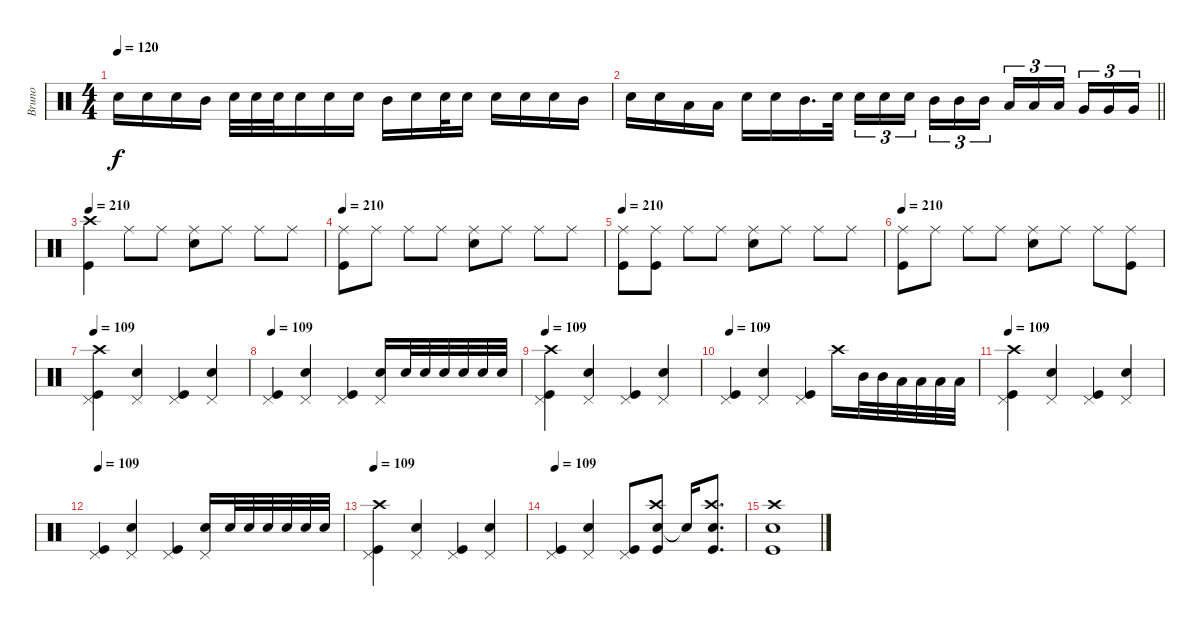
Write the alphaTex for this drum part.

\track ("Bruno" "Bruno") {instrument percussion}
\staff {score}
\articulation defaults
\ts (4 4)
\tempo 120
\clef neutral
\ks c "Snare (hit) 2".16{dy f} "Snare (hit) 2".16 "Snare (hit) 2".16 "Mid Tom (hit)".16 "Snare (hit) 2".32 "Snare (hit) 2".32 "Snare (hit) 2".32 "Snare (hit) 2".16 "Snare (hit) 2".16 "Snare (hit) 2".16 "Mid Tom (hit)".16 "Snare (hit) 2".16 "Snare (hit) 2".32 "Snare (hit) 2".16 "Snare (hit) 2".16 "Snare (hit) 2".16 "Snare (hit) 2".16 "Mid Tom (hit)".16
|
\barLineRight lightlight "Snare (hit) 2".16 "Snare (hit) 2".16 "Low Tom (hit)".16 "Low Tom (hit)".16 "Snare (hit) 2".16 "Snare (hit) 2".16 "Mid Tom (hit)".16{d} "Snare (hit) 2".32 "Snare (hit) 2".16{tu (3 2)} "Snare (hit) 2".16{tu (3 2)} "Snare (hit) 2".16{tu (3 2) beam splitsecondary} "Mid Tom (hit)".16{tu (3 2)} "Mid Tom (hit)".16{tu (3 2)} "Mid Tom (hit)".16{tu (3 2)} "Low Tom (hit)".16{tu (3 2)} "Low Tom (hit)".16{tu (3 2)} "Low Tom (hit)".16{tu (3 2) beam splitsecondary} "Very Low Tom (hit)".16{tu (3 2)} "Very Low Tom (hit)".16{tu (3 2)} "Very Low Tom (hit)".16{tu (3 2)}
|
\tempo 210
("Crash high (hit)" "Kick (hit)").4 "Ride (middle)".8 "Ride (middle)".8 ("Ride (middle)" "Snare (hit) 2").8 "Ride (middle)".8 "Ride (middle)".8 "Ride (middle)".8 |
\tempo 210
("Ride (middle)" "Kick (hit)").8 "Ride (middle)".8 "Ride (middle)".8 "Ride (middle)".8 ("Ride (middle)" "Snare (hit) 2").8 "Ride (middle)".8 "Ride (middle)".8 "Ride (middle)".8 |
\tempo 210
("Ride (middle)" "Kick (hit)").8 ("Ride (middle)" "Kick (hit)").8 "Ride (middle)".8 "Ride (middle)".8 ("Ride (middle)" "Snare (hit) 2").8 "Ride (middle)".8 "Ride (middle)".8 "Ride (middle)".8 |
\tempo 210
("Ride (middle)" "Kick (hit)").8 "Ride (middle)".8 "Ride (middle)".8 "Ride (middle)".8 ("Ride (middle)" "Snare (hit) 2").8 "Ride (middle)".8 "Ride (middle)".8 ("Ride (middle)" "Kick (hit)").8 |
\tempo 109
("Crash high (hit)" "Pedal Hi-Hat (hit)" "Kick (hit)").4 ("Pedal Hi-Hat (hit)" "Snare (hit) 2").4 ("Pedal Hi-Hat (hit)" "Kick (hit)").4 ("Pedal Hi-Hat (hit)" "Snare (hit) 2").4 |
\tempo 109
("Pedal Hi-Hat (hit)" "Kick (hit)").4 ("Pedal Hi-Hat (hit)" "Snare (hit) 2").4 ("Pedal Hi-Hat (hit)" "Kick (hit)").4 ("Pedal Hi-Hat (hit)" "Snare (hit) 2").16 "Snare (hit) 2".32 "Snare (hit) 2".32 "Snare (hit) 2".32 "Snare (hit) 2".32 "Snare (hit) 2".32 "Snare (hit) 2".32 |
\tempo 109
("Crash high (hit)" "Pedal Hi-Hat (hit)" "Kick (hit)").4 ("Pedal Hi-Hat (hit)" "Snare (hit) 2").4 ("Pedal Hi-Hat (hit)" "Kick (hit)").4 ("Pedal Hi-Hat (hit)" "Snare (hit) 2").4 |
\tempo 109
("Pedal Hi-Hat (hit)" "Kick (hit)").4 ("Pedal Hi-Hat (hit)" "Snare (hit) 2").4 ("Pedal Hi-Hat (hit)" "Kick (hit)").4 "Crash high (hit)".16 "Mid Tom (hit)".32 "Mid Tom (hit)".32 "Low Tom (hit)".32 "Low Tom (hit)".32 "Low Tom (hit)".32 "Low Tom (hit)".32 |
\tempo 109
("Crash high (hit)" "Pedal Hi-Hat (hit)" "Kick (hit)").4 ("Pedal Hi-Hat (hit)" "Snare (hit) 2").4 ("Pedal Hi-Hat (hit)" "Kick (hit)").4 ("Pedal Hi-Hat (hit)" "Snare (hit) 2").4 |
\tempo 109
("Pedal Hi-Hat (hit)" "Kick (hit)").4 ("Pedal Hi-Hat (hit)" "Snare (hit) 2").4 ("Pedal Hi-Hat (hit)" "Kick (hit)").4 ("Pedal Hi-Hat (hit)" "Snare (hit) 2").16 "Snare (hit) 2".32 "Snare (hit) 2".32 "Snare (hit) 2".32 "Snare (hit) 2".32 "Snare (hit) 2".32 "Snare (hit) 2".32 |
\tempo 109
("Crash high (hit)" "Pedal Hi-Hat (hit)" "Kick (hit)").4 ("Pedal Hi-Hat (hit)" "Snare (hit) 2").4 ("Pedal Hi-Hat (hit)" "Kick (hit)").4 ("Pedal Hi-Hat (hit)" "Snare (hit) 2").4 |
\tempo 109
("Pedal Hi-Hat (hit)" "Kick (hit)").4 ("Pedal Hi-Hat (hit)" "Snare (hit) 2").4 ("Pedal Hi-Hat (hit)" "Kick (hit)").8 ("Snare (hit) 2" "Crash high (hit)" "Kick (hit)").8 "Snare (hit)"{t}.16 ("Snare (hit) 2" "Crash high (hit)" "Kick (hit)").8{d} |
("Snare (hit) 2" "Crash high (hit)" "Kick (hit)").1
